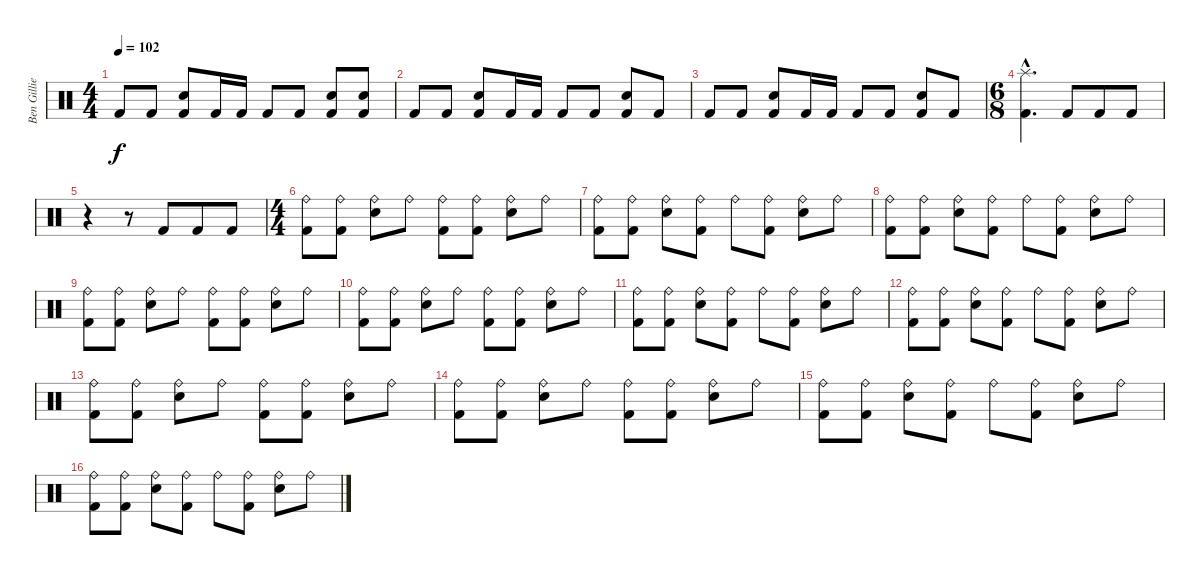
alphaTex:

\track ("Ben Gillies" "Ben Gillie") {instrument percussion}
\staff {score}
\articulation defaults
\ts (4 4)
\tempo 102
\clef neutral
\ks c "Kick (hit) 2".8{dy f} "Kick (hit) 2".8
("Electric Snare (hit)" "Kick (hit) 2").8 "Kick (hit) 2".16 "Kick (hit) 2".16 "Kick (hit) 2".8 "Kick (hit) 2".8 ("Electric Snare (hit)" "Kick (hit) 2").8 ("Electric Snare (hit)" "Kick (hit) 2").8 |
"Kick (hit) 2".8 "Kick (hit) 2".8 ("Electric Snare (hit)" "Kick (hit) 2").8 "Kick (hit) 2".16 "Kick (hit) 2".16 "Kick (hit) 2".8 "Kick (hit) 2".8 ("Electric Snare (hit)" "Kick (hit) 2").8 "Kick (hit) 2".8 |
"Kick (hit) 2".8 "Kick (hit) 2".8 ("Electric Snare (hit)" "Kick (hit) 2").8 "Kick (hit) 2".16 "Kick (hit) 2".16 "Kick (hit) 2".8 "Kick (hit) 2".8 ("Electric Snare (hit)" "Kick (hit) 2").8 "Kick (hit) 2".8 |
\ts (6 8)
("Splash (hit)"{hac} "Kick (hit) 2"{hac}).4{d} "Kick (hit) 2".8 "Kick (hit) 2".8 "Kick (hit) 2".8 |
r.4 r.8 "Kick (hit) 2".8 "Kick (hit) 2".8 "Kick (hit) 2".8 |
\ts (4 4)
("Ride (bell)" "Kick (hit) 2").8 ("Ride (bell)" "Kick (hit) 2").8 ("Ride (bell)" "Electric Snare (hit)").8 "Ride (bell)".8 ("Ride (bell)" "Kick (hit) 2").8 ("Ride (bell)" "Kick (hit) 2").8 ("Ride (bell)" "Electric Snare (hit)").8 "Ride (bell)".8 |
("Ride (bell)" "Kick (hit) 2").8 ("Ride (bell)" "Kick (hit) 2").8 ("Ride (bell)" "Electric Snare (hit)").8 ("Ride (bell)" "Kick (hit) 2").8 "Ride (bell)".8 ("Ride (bell)" "Kick (hit) 2").8 ("Ride (bell)" "Electric Snare (hit)").8 "Ride (bell)".8 |
("Ride (bell)" "Kick (hit) 2").8 ("Ride (bell)" "Kick (hit) 2").8 ("Ride (bell)" "Electric Snare (hit)").8 ("Ride (bell)" "Kick (hit) 2").8 "Ride (bell)".8 ("Ride (bell)" "Kick (hit) 2").8 ("Ride (bell)" "Electric Snare (hit)").8 "Ride (bell)".8 |
("Ride (bell)" "Kick (hit) 2").8 ("Ride (bell)" "Kick (hit) 2").8 ("Ride (bell)" "Electric Snare (hit)").8 "Ride (bell)".8 ("Ride (bell)" "Kick (hit) 2").8 ("Ride (bell)" "Kick (hit) 2").8 ("Ride (bell)" "Electric Snare (hit)").8 "Ride (bell)".8 |
("Ride (bell)" "Kick (hit) 2").8 ("Ride (bell)" "Kick (hit) 2").8 ("Ride (bell)" "Electric Snare (hit)").8 "Ride (bell)".8 ("Ride (bell)" "Kick (hit) 2").8 ("Ride (bell)" "Kick (hit) 2").8 ("Ride (bell)" "Electric Snare (hit)").8 "Ride (bell)".8 |
("Ride (bell)" "Kick (hit) 2").8 ("Ride (bell)" "Kick (hit) 2").8 ("Ride (bell)" "Electric Snare (hit)").8 ("Ride (bell)" "Kick (hit) 2").8 "Ride (bell)".8 ("Ride (bell)" "Kick (hit) 2").8 ("Ride (bell)" "Electric Snare (hit)").8 "Ride (bell)".8 |
("Ride (bell)" "Kick (hit) 2").8 ("Ride (bell)" "Kick (hit) 2").8 ("Ride (bell)" "Electric Snare (hit)").8 ("Ride (bell)" "Kick (hit) 2").8 "Ride (bell)".8 ("Ride (bell)" "Kick (hit) 2").8 ("Ride (bell)" "Electric Snare (hit)").8 "Ride (bell)".8 |
("Ride (bell)" "Kick (hit) 2").8 ("Ride (bell)" "Kick (hit) 2").8 ("Ride (bell)" "Electric Snare (hit)").8 "Ride (bell)".8 ("Ride (bell)" "Kick (hit) 2").8 ("Ride (bell)" "Kick (hit) 2").8 ("Ride (bell)" "Electric Snare (hit)").8 "Ride (bell)".8 |
("Ride (bell)" "Kick (hit) 2").8 ("Ride (bell)" "Kick (hit) 2").8 ("Ride (bell)" "Electric Snare (hit)").8 "Ride (bell)".8 ("Ride (bell)" "Kick (hit) 2").8 ("Ride (bell)" "Kick (hit) 2").8 ("Ride (bell)" "Electric Snare (hit)").8 "Ride (bell)".8 |
("Ride (bell)" "Kick (hit) 2").8 ("Ride (bell)" "Kick (hit) 2").8 ("Ride (bell)" "Electric Snare (hit)").8 ("Ride (bell)" "Kick (hit) 2").8 "Ride (bell)".8 ("Ride (bell)" "Kick (hit) 2").8 ("Ride (bell)" "Electric Snare (hit)").8 "Ride (bell)".8 |
("Ride (bell)" "Kick (hit) 2").8 ("Ride (bell)" "Kick (hit) 2").8 ("Ride (bell)" "Electric Snare (hit)").8 ("Ride (bell)" "Kick (hit) 2").8 "Ride (bell)".8 ("Ride (bell)" "Kick (hit) 2").8 ("Ride (bell)" "Electric Snare (hit)").8 "Ride (bell)".8
